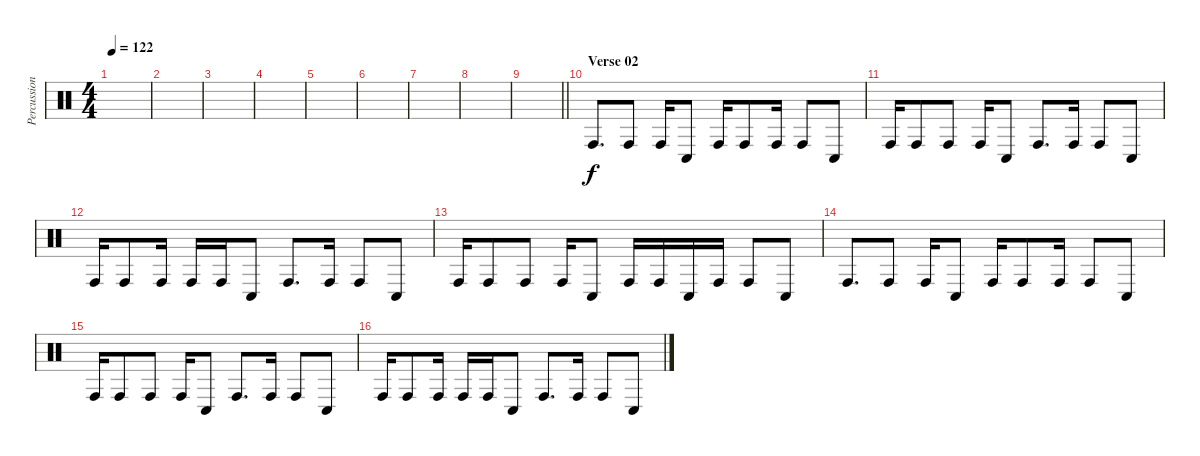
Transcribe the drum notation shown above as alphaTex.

\track ("Percussion" "Percussion") {instrument percussion}
\staff {score}
\articulation defaults
\ts (4 4)
\tempo 122
\clef neutral
\ks c
|
|
|
|
|
|
|
|
\barLineRight lightlight
|
\section ("" "Verse 02")
"Conga high (hit)".8{d} "Conga high (hit)".8 "Conga high (hit)".16 "Conga low (hit)".8 "Conga high (hit)".16 "Conga high (hit)".8 "Conga high (hit)".16 "Conga high (hit)".8 "Conga low (hit)".8 |
"Conga high (hit)".16 "Conga high (hit)".8 "Conga high (hit)".8 "Conga high (hit)".16 "Conga low (hit)".8 "Conga high (hit)".8{d} "Conga high (hit)".16 "Conga high (hit)".8 "Conga low (hit)".8 |
"Conga high (hit)".16 "Conga high (hit)".8 "Conga high (hit)".16 "Conga high (hit)".16 "Conga high (hit)".16 "Conga low (hit)".8 "Conga high (hit)".8{d} "Conga high (hit)".16 "Conga high (hit)".8 "Conga low (hit)".8 |
"Conga high (hit)".16 "Conga high (hit)".8 "Conga high (hit)".8 "Conga high (hit)".16 "Conga low (hit)".8 "Conga high (hit)".16 "Conga high (hit)".16 "Conga low (hit)".16 "Conga high (hit)".16 "Conga high (hit)".8 "Conga low (hit)".8 |
"Conga high (hit)".8{d} "Conga high (hit)".8 "Conga high (hit)".16 "Conga low (hit)".8 "Conga high (hit)".16 "Conga high (hit)".8 "Conga high (hit)".16 "Conga high (hit)".8 "Conga low (hit)".8 |
"Conga high (hit)".16 "Conga high (hit)".8 "Conga high (hit)".8 "Conga high (hit)".16 "Conga low (hit)".8 "Conga high (hit)".8{d} "Conga high (hit)".16 "Conga high (hit)".8 "Conga low (hit)".8 |
"Conga high (hit)".16 "Conga high (hit)".8 "Conga high (hit)".16 "Conga high (hit)".16 "Conga high (hit)".16 "Conga low (hit)".8 "Conga high (hit)".8{d} "Conga high (hit)".16 "Conga high (hit)".8 "Conga low (hit)".8
